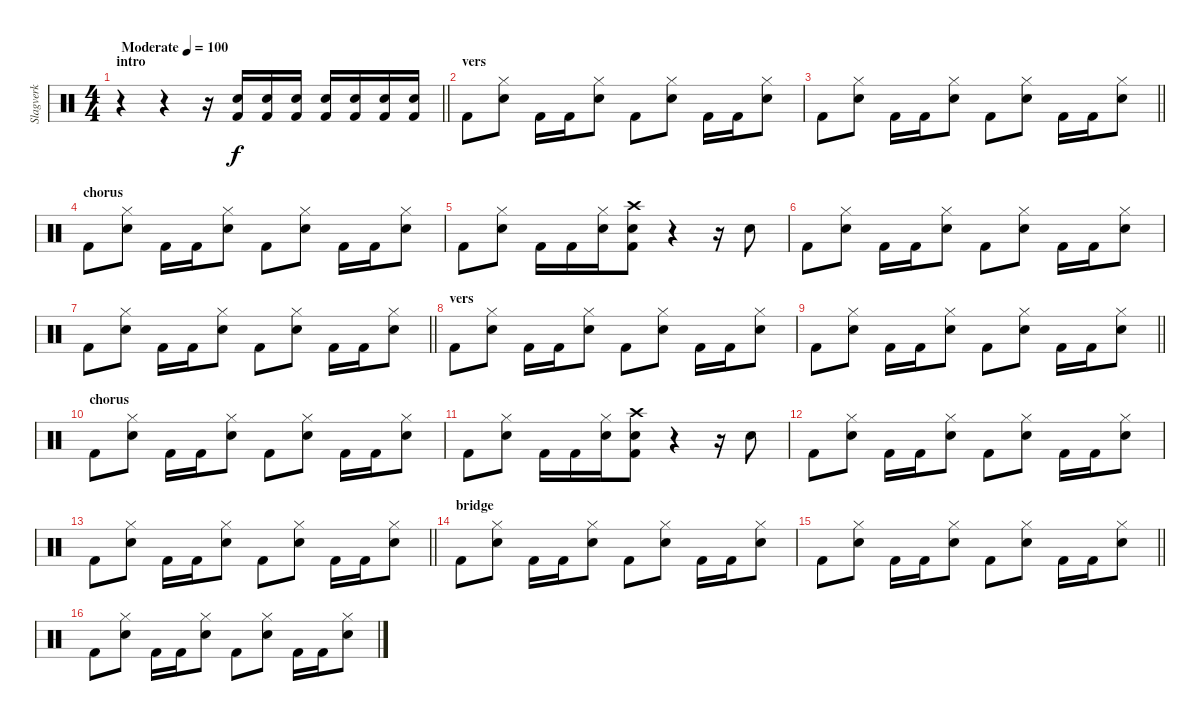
\track ("Slagverk" "Slagverk") {instrument percussion}
\staff {score}
\articulation defaults
\ts (4 4)
\section ("" "intro")
\tempo (100 "Moderate")
\clef neutral
\barLineRight lightlight
\ks c
r.4{dy f} r.4 r.16 ("Snare (hit) 2" "Kick (hit) 2").16 ("Snare (hit) 2" "Kick (hit) 2").16 ("Snare (hit) 2" "Kick (hit) 2").16 ("Snare (hit) 2" "Kick (hit) 2").16 ("Snare (hit) 2" "Kick (hit) 2").16 ("Snare (hit) 2" "Kick (hit) 2").16 ("Snare (hit) 2" "Kick (hit) 2").16 |
\section ("" "vers")
"Kick (hit) 2".8 ("Snare (hit) 2" "Hi-Hat (closed)").8 "Kick (hit) 2".16 "Kick (hit) 2".16 ("Snare (hit) 2" "Hi-Hat (closed)").8 "Kick (hit) 2".8 ("Snare (hit) 2" "Hi-Hat (closed)").8 "Kick (hit) 2".16 "Kick (hit) 2".16 ("Snare (hit) 2" "Hi-Hat (closed)").8 |
\barLineRight lightlight "Kick (hit) 2".8
("Snare (hit) 2" "Hi-Hat (closed)").8 "Kick (hit) 2".16 "Kick (hit) 2".16 ("Snare (hit) 2" "Hi-Hat (closed)").8 "Kick (hit) 2".8 ("Snare (hit) 2" "Hi-Hat (closed)").8 "Kick (hit) 2".16 "Kick (hit) 2".16 ("Snare (hit) 2" "Hi-Hat (closed)").8 |
\section ("" "chorus")
"Kick (hit) 2".8 ("Snare (hit) 2" "Hi-Hat (closed)").8 "Kick (hit) 2".16 "Kick (hit) 2".16 ("Snare (hit) 2" "Hi-Hat (closed)").8 "Kick (hit) 2".8 ("Snare (hit) 2" "Hi-Hat (closed)").8 "Kick (hit) 2".16 "Kick (hit) 2".16 ("Snare (hit) 2" "Hi-Hat (closed)").8 |
"Kick (hit) 2".8 ("Snare (hit) 2" "Hi-Hat (closed)").8 "Kick (hit) 2".16 "Kick (hit) 2".16 ("Snare (hit) 2" "Hi-Hat (closed)").16 ("Kick (hit) 2" "Snare (hit) 2" "Crash high (hit)").8 r.4 r.16 "Snare (hit) 2".8 |
"Kick (hit) 2".8 ("Snare (hit) 2" "Hi-Hat (closed)").8 "Kick (hit) 2".16 "Kick (hit) 2".16 ("Snare (hit) 2" "Hi-Hat (closed)").8 "Kick (hit) 2".8 ("Snare (hit) 2" "Hi-Hat (closed)").8 "Kick (hit) 2".16 "Kick (hit) 2".16 ("Snare (hit) 2" "Hi-Hat (closed)").8 |
\barLineRight lightlight "Kick (hit) 2".8
("Snare (hit) 2" "Hi-Hat (closed)").8 "Kick (hit) 2".16 "Kick (hit) 2".16 ("Snare (hit) 2" "Hi-Hat (closed)").8 "Kick (hit) 2".8 ("Snare (hit) 2" "Hi-Hat (closed)").8 "Kick (hit) 2".16 "Kick (hit) 2".16 ("Snare (hit) 2" "Hi-Hat (closed)").8 |
\section ("" "vers")
"Kick (hit) 2".8 ("Snare (hit) 2" "Hi-Hat (closed)").8 "Kick (hit) 2".16 "Kick (hit) 2".16 ("Snare (hit) 2" "Hi-Hat (closed)").8 "Kick (hit) 2".8 ("Snare (hit) 2" "Hi-Hat (closed)").8 "Kick (hit) 2".16 "Kick (hit) 2".16 ("Snare (hit) 2" "Hi-Hat (closed)").8 |
\barLineRight lightlight "Kick (hit) 2".8
("Snare (hit) 2" "Hi-Hat (closed)").8 "Kick (hit) 2".16 "Kick (hit) 2".16 ("Snare (hit) 2" "Hi-Hat (closed)").8 "Kick (hit) 2".8 ("Snare (hit) 2" "Hi-Hat (closed)").8 "Kick (hit) 2".16 "Kick (hit) 2".16 ("Snare (hit) 2" "Hi-Hat (closed)").8 |
\section ("" "chorus")
"Kick (hit) 2".8 ("Snare (hit) 2" "Hi-Hat (closed)").8 "Kick (hit) 2".16 "Kick (hit) 2".16 ("Snare (hit) 2" "Hi-Hat (closed)").8 "Kick (hit) 2".8 ("Snare (hit) 2" "Hi-Hat (closed)").8 "Kick (hit) 2".16 "Kick (hit) 2".16 ("Snare (hit) 2" "Hi-Hat (closed)").8 |
"Kick (hit) 2".8 ("Snare (hit) 2" "Hi-Hat (closed)").8 "Kick (hit) 2".16 "Kick (hit) 2".16 ("Snare (hit) 2" "Hi-Hat (closed)").16 ("Kick (hit) 2" "Snare (hit) 2" "Crash high (hit)").8 r.4 r.16 "Snare (hit) 2".8 |
"Kick (hit) 2".8 ("Snare (hit) 2" "Hi-Hat (closed)").8 "Kick (hit) 2".16 "Kick (hit) 2".16 ("Snare (hit) 2" "Hi-Hat (closed)").8 "Kick (hit) 2".8 ("Snare (hit) 2" "Hi-Hat (closed)").8 "Kick (hit) 2".16 "Kick (hit) 2".16 ("Snare (hit) 2" "Hi-Hat (closed)").8 |
\barLineRight lightlight "Kick (hit) 2".8
("Snare (hit) 2" "Hi-Hat (closed)").8 "Kick (hit) 2".16 "Kick (hit) 2".16 ("Snare (hit) 2" "Hi-Hat (closed)").8 "Kick (hit) 2".8 ("Snare (hit) 2" "Hi-Hat (closed)").8 "Kick (hit) 2".16 "Kick (hit) 2".16 ("Snare (hit) 2" "Hi-Hat (closed)").8 |
\section ("" "bridge")
"Kick (hit) 2".8 ("Snare (hit) 2" "Hi-Hat (closed)").8 "Kick (hit) 2".16 "Kick (hit) 2".16 ("Snare (hit) 2" "Hi-Hat (closed)").8 "Kick (hit) 2".8 ("Snare (hit) 2" "Hi-Hat (closed)").8 "Kick (hit) 2".16 "Kick (hit) 2".16 ("Snare (hit) 2" "Hi-Hat (closed)").8 |
\barLineRight lightlight "Kick (hit) 2".8
("Snare (hit) 2" "Hi-Hat (closed)").8 "Kick (hit) 2".16 "Kick (hit) 2".16 ("Snare (hit) 2" "Hi-Hat (closed)").8 "Kick (hit) 2".8 ("Snare (hit) 2" "Hi-Hat (closed)").8 "Kick (hit) 2".16 "Kick (hit) 2".16 ("Snare (hit) 2" "Hi-Hat (closed)").8 |
"Kick (hit) 2".8 ("Snare (hit) 2" "Hi-Hat (closed)").8 "Kick (hit) 2".16 "Kick (hit) 2".16 ("Snare (hit) 2" "Hi-Hat (closed)").8 "Kick (hit) 2".8 ("Snare (hit) 2" "Hi-Hat (closed)").8 "Kick (hit) 2".16 "Kick (hit) 2".16 ("Snare (hit) 2" "Hi-Hat (closed)").8
